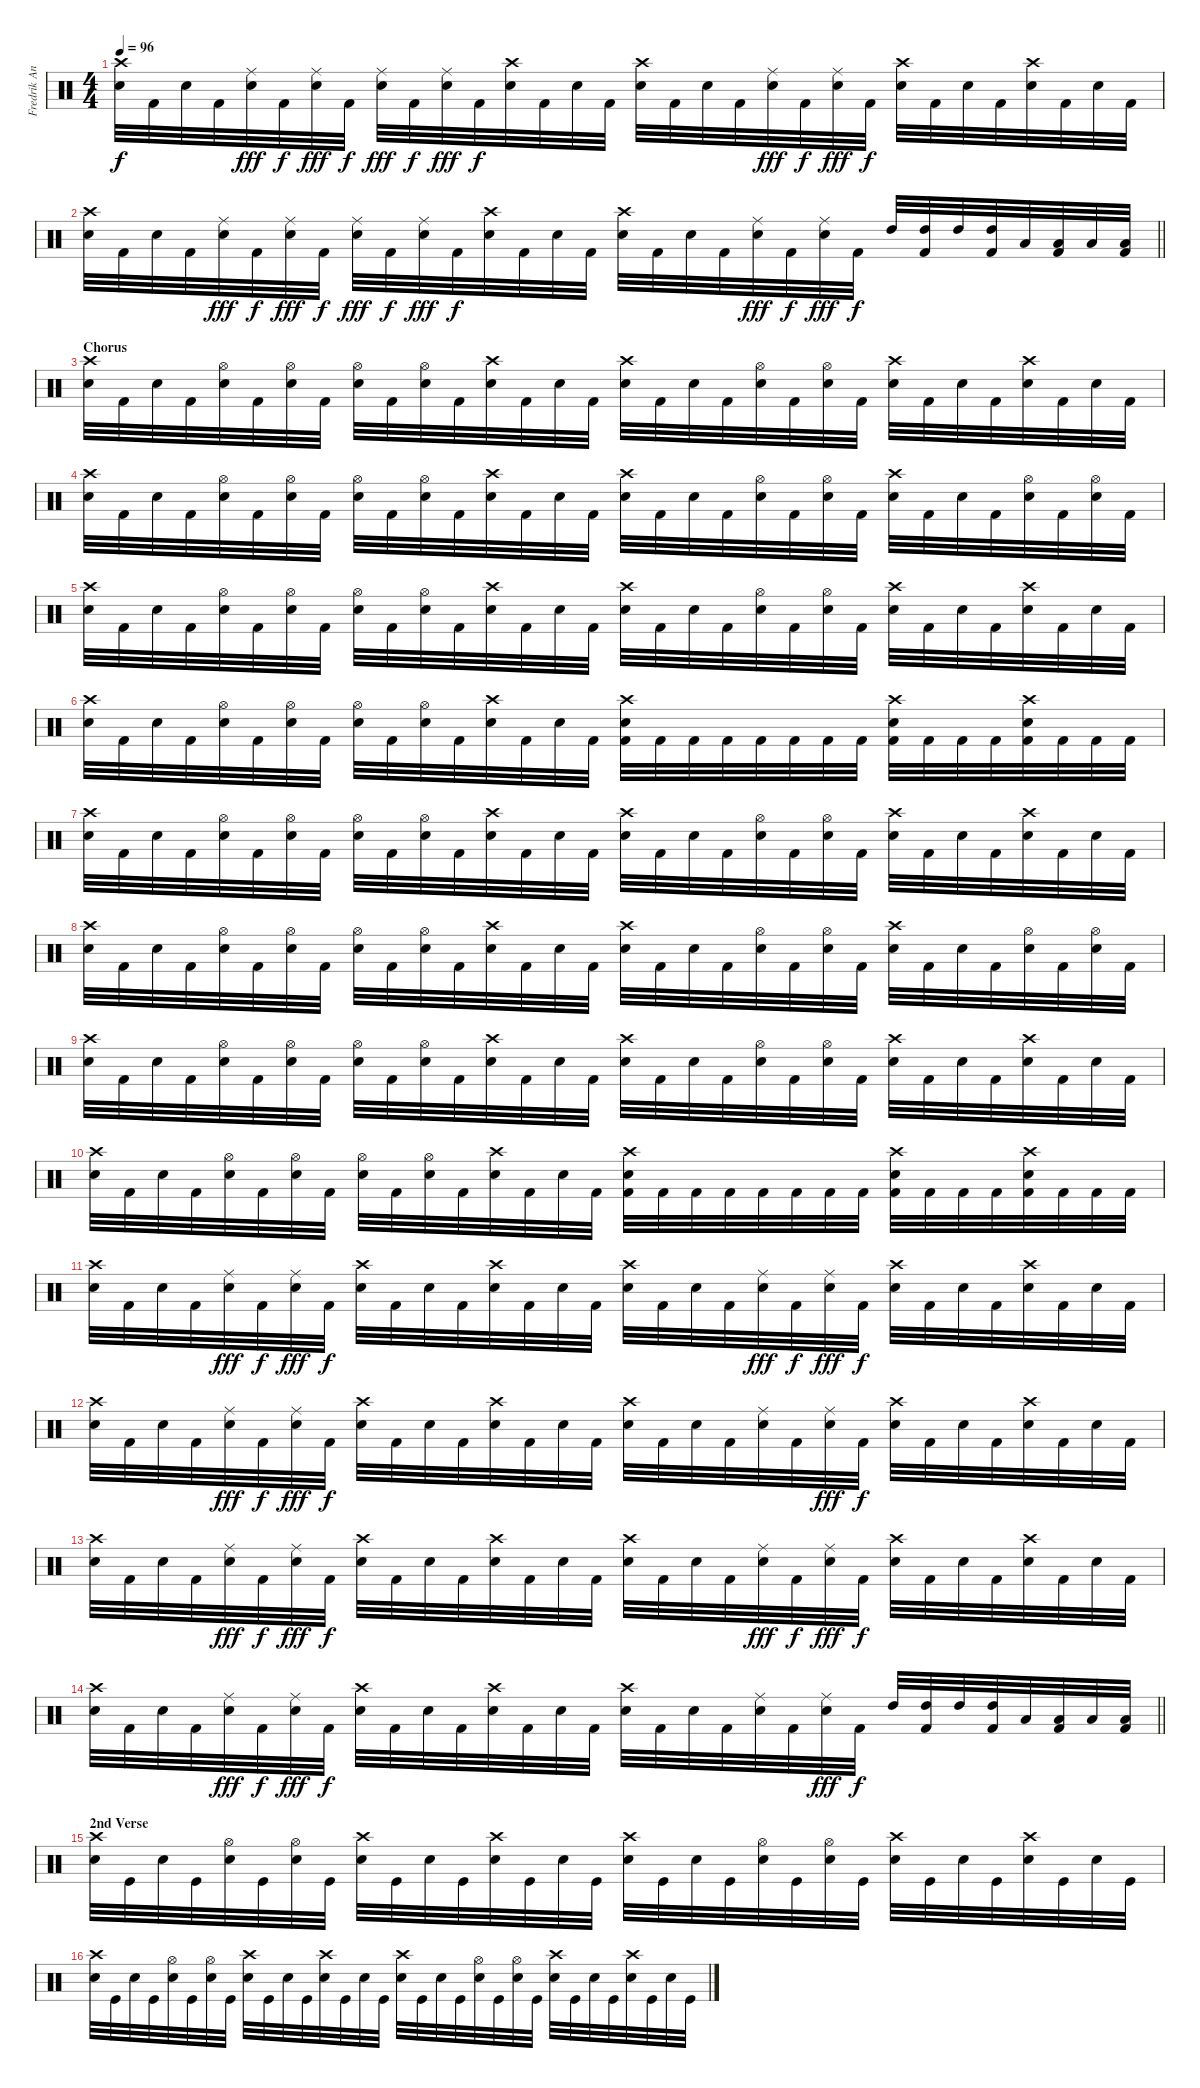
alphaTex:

\track ("Fredrik Andersson" "Fredrik An") {instrument percussion}
\staff {score}
\articulation defaults
\ts (4 4)
\tempo 96
\clef neutral
\ks c
("Crash high (hit)" "Snare (hit) 2").32{dy f} "Kick (hit) 2".32 "Snare (hit) 2".32 "Kick (hit) 2".32 ("Ride (middle)" "Snare (hit) 2").32{dy fff} "Kick (hit) 2".32{dy f} ("Ride (middle)" "Snare (hit) 2").32{dy fff} "Kick (hit) 2".32{dy f} ("Ride (middle)" "Snare (hit) 2").32{dy fff} "Kick (hit) 2".32{dy f} ("Ride (middle)" "Snare (hit) 2").32{dy fff} "Kick (hit) 2".32{dy f} ("Crash high (hit)" "Snare (hit) 2").32 "Kick (hit) 2".32 "Snare (hit) 2".32 "Kick (hit) 2".32 ("Crash high (hit)" "Snare (hit) 2").32 "Kick (hit) 2".32 "Snare (hit) 2".32 "Kick (hit) 2".32 ("Ride (middle)" "Snare (hit) 2").32{dy fff} "Kick (hit) 2".32{dy f} ("Ride (middle)" "Snare (hit) 2").32{dy fff} "Kick (hit) 2".32{dy f} ("Crash high (hit)" "Snare (hit) 2").32 "Kick (hit) 2".32 "Snare (hit) 2".32 "Kick (hit) 2".32 ("Crash high (hit)" "Snare (hit) 2").32 "Kick (hit) 2".32 "Snare (hit) 2".32 "Kick (hit) 2".32 |
\barLineRight lightlight
("Crash high (hit)" "Snare (hit) 2").32 "Kick (hit) 2".32 "Snare (hit) 2".32 "Kick (hit) 2".32 ("Ride (middle)" "Snare (hit) 2").32{dy fff} "Kick (hit) 2".32{dy f} ("Ride (middle)" "Snare (hit) 2").32{dy fff} "Kick (hit) 2".32{dy f} ("Ride (middle)" "Snare (hit) 2").32{dy fff} "Kick (hit) 2".32{dy f} ("Ride (middle)" "Snare (hit) 2").32{dy fff} "Kick (hit) 2".32{dy f} ("Crash high (hit)" "Snare (hit) 2").32 "Kick (hit) 2".32 "Snare (hit) 2".32 "Kick (hit) 2".32 ("Crash high (hit)" "Snare (hit) 2").32 "Kick (hit) 2".32 "Snare (hit) 2".32 "Kick (hit) 2".32 ("Ride (middle)" "Snare (hit) 2").32{dy fff} "Kick (hit) 2".32{dy f} ("Ride (middle)" "Snare (hit) 2").32{dy fff} "Kick (hit) 2".32{dy f} "High Tom (hit)".32 ("High Tom (hit)" "Kick (hit) 2").32 "High Tom (hit)".32 ("High Tom (hit)" "Kick (hit) 2").32 "Low Tom (hit)".32 ("Low Tom (hit)" "Kick (hit) 2").32 "Low Tom (hit)".32 ("Low Tom (hit)" "Kick (hit) 2").32 |
\section ("" "Chorus")
("Crash high (hit)" "Snare (hit) 2").32 "Kick (hit) 2".32 "Snare (hit) 2".32 "Kick (hit) 2".32 ("Hi-Hat (open)" "Snare (hit) 2").32 "Kick (hit) 2".32 ("Hi-Hat (open)" "Snare (hit) 2").32 "Kick (hit) 2".32 ("Hi-Hat (open)" "Snare (hit) 2").32 "Kick (hit) 2".32 ("Hi-Hat (open)" "Snare (hit) 2").32 "Kick (hit) 2".32 ("Crash high (hit)" "Snare (hit) 2").32 "Kick (hit) 2".32 "Snare (hit) 2".32 "Kick (hit) 2".32 ("Crash high (hit)" "Snare (hit) 2").32 "Kick (hit) 2".32 "Snare (hit) 2".32 "Kick (hit) 2".32 ("Hi-Hat (open)" "Snare (hit) 2").32 "Kick (hit) 2".32 ("Hi-Hat (open)" "Snare (hit) 2").32 "Kick (hit) 2".32 ("Crash high (hit)" "Snare (hit) 2").32 "Kick (hit) 2".32 "Snare (hit) 2".32 "Kick (hit) 2".32 ("Crash high (hit)" "Snare (hit) 2").32 "Kick (hit) 2".32 "Snare (hit) 2".32 "Kick (hit) 2".32 |
("Crash high (hit)" "Snare (hit) 2").32 "Kick (hit) 2".32 "Snare (hit) 2".32 "Kick (hit) 2".32 ("Hi-Hat (open)" "Snare (hit) 2").32 "Kick (hit) 2".32 ("Hi-Hat (open)" "Snare (hit) 2").32 "Kick (hit) 2".32 ("Hi-Hat (open)" "Snare (hit) 2").32 "Kick (hit) 2".32 ("Hi-Hat (open)" "Snare (hit) 2").32 "Kick (hit) 2".32 ("Crash high (hit)" "Snare (hit) 2").32 "Kick (hit) 2".32 "Snare (hit) 2".32 "Kick (hit) 2".32 ("Crash high (hit)" "Snare (hit) 2").32 "Kick (hit) 2".32 "Snare (hit) 2".32 "Kick (hit) 2".32 ("Hi-Hat (open)" "Snare (hit) 2").32 "Kick (hit) 2".32 ("Hi-Hat (open)" "Snare (hit) 2").32 "Kick (hit) 2".32 ("Crash high (hit)" "Snare (hit) 2").32 "Kick (hit) 2".32 "Snare (hit) 2".32 "Kick (hit) 2".32 ("Hi-Hat (open)" "Snare (hit) 2").32 "Kick (hit) 2".32 ("Hi-Hat (open)" "Snare (hit) 2").32 "Kick (hit) 2".32 |
("Crash high (hit)" "Snare (hit) 2").32 "Kick (hit) 2".32 "Snare (hit) 2".32 "Kick (hit) 2".32 ("Hi-Hat (open)" "Snare (hit) 2").32 "Kick (hit) 2".32 ("Hi-Hat (open)" "Snare (hit) 2").32 "Kick (hit) 2".32 ("Hi-Hat (open)" "Snare (hit) 2").32 "Kick (hit) 2".32 ("Hi-Hat (open)" "Snare (hit) 2").32 "Kick (hit) 2".32 ("Crash high (hit)" "Snare (hit) 2").32 "Kick (hit) 2".32 "Snare (hit) 2".32 "Kick (hit) 2".32 ("Crash high (hit)" "Snare (hit) 2").32 "Kick (hit) 2".32 "Snare (hit) 2".32 "Kick (hit) 2".32 ("Hi-Hat (open)" "Snare (hit) 2").32 "Kick (hit) 2".32 ("Hi-Hat (open)" "Snare (hit) 2").32 "Kick (hit) 2".32 ("Crash high (hit)" "Snare (hit) 2").32 "Kick (hit) 2".32 "Snare (hit) 2".32 "Kick (hit) 2".32 ("Crash high (hit)" "Snare (hit) 2").32 "Kick (hit) 2".32 "Snare (hit) 2".32 "Kick (hit) 2".32 |
("Crash high (hit)" "Snare (hit) 2").32 "Kick (hit) 2".32 "Snare (hit) 2".32 "Kick (hit) 2".32 ("Hi-Hat (open)" "Snare (hit) 2").32 "Kick (hit) 2".32 ("Hi-Hat (open)" "Snare (hit) 2").32 "Kick (hit) 2".32 ("Hi-Hat (open)" "Snare (hit) 2").32 "Kick (hit) 2".32 ("Hi-Hat (open)" "Snare (hit) 2").32 "Kick (hit) 2".32 ("Crash high (hit)" "Snare (hit) 2").32 "Kick (hit) 2".32 "Snare (hit) 2".32 "Kick (hit) 2".32 ("Crash high (hit)" "Snare (hit) 2" "Kick (hit) 2").32 "Kick (hit) 2".32 "Kick (hit) 2".32 "Kick (hit) 2".32 "Kick (hit) 2".32 "Kick (hit) 2".32 "Kick (hit) 2".32 "Kick (hit) 2".32 ("Crash high (hit)" "Snare (hit) 2" "Kick (hit) 2").32 "Kick (hit) 2".32 "Kick (hit) 2".32 "Kick (hit) 2".32 ("Crash high (hit)" "Snare (hit) 2" "Kick (hit) 2").32 "Kick (hit) 2".32 "Kick (hit) 2".32 "Kick (hit) 2".32 |
("Crash high (hit)" "Snare (hit) 2").32 "Kick (hit) 2".32 "Snare (hit) 2".32 "Kick (hit) 2".32 ("Hi-Hat (open)" "Snare (hit) 2").32 "Kick (hit) 2".32 ("Hi-Hat (open)" "Snare (hit) 2").32 "Kick (hit) 2".32 ("Hi-Hat (open)" "Snare (hit) 2").32 "Kick (hit) 2".32 ("Hi-Hat (open)" "Snare (hit) 2").32 "Kick (hit) 2".32 ("Crash high (hit)" "Snare (hit) 2").32 "Kick (hit) 2".32 "Snare (hit) 2".32 "Kick (hit) 2".32 ("Crash high (hit)" "Snare (hit) 2").32 "Kick (hit) 2".32 "Snare (hit) 2".32 "Kick (hit) 2".32 ("Hi-Hat (open)" "Snare (hit) 2").32 "Kick (hit) 2".32 ("Hi-Hat (open)" "Snare (hit) 2").32 "Kick (hit) 2".32 ("Crash high (hit)" "Snare (hit) 2").32 "Kick (hit) 2".32 "Snare (hit) 2".32 "Kick (hit) 2".32 ("Crash high (hit)" "Snare (hit) 2").32 "Kick (hit) 2".32 "Snare (hit) 2".32 "Kick (hit) 2".32 |
("Crash high (hit)" "Snare (hit) 2").32 "Kick (hit) 2".32 "Snare (hit) 2".32 "Kick (hit) 2".32 ("Hi-Hat (open)" "Snare (hit) 2").32 "Kick (hit) 2".32 ("Hi-Hat (open)" "Snare (hit) 2").32 "Kick (hit) 2".32 ("Hi-Hat (open)" "Snare (hit) 2").32 "Kick (hit) 2".32 ("Hi-Hat (open)" "Snare (hit) 2").32 "Kick (hit) 2".32 ("Crash high (hit)" "Snare (hit) 2").32 "Kick (hit) 2".32 "Snare (hit) 2".32 "Kick (hit) 2".32 ("Crash high (hit)" "Snare (hit) 2").32 "Kick (hit) 2".32 "Snare (hit) 2".32 "Kick (hit) 2".32 ("Hi-Hat (open)" "Snare (hit) 2").32 "Kick (hit) 2".32 ("Hi-Hat (open)" "Snare (hit) 2").32 "Kick (hit) 2".32 ("Crash high (hit)" "Snare (hit) 2").32 "Kick (hit) 2".32 "Snare (hit) 2".32 "Kick (hit) 2".32 ("Hi-Hat (open)" "Snare (hit) 2").32 "Kick (hit) 2".32 ("Hi-Hat (open)" "Snare (hit) 2").32 "Kick (hit) 2".32 |
("Crash high (hit)" "Snare (hit) 2").32 "Kick (hit) 2".32 "Snare (hit) 2".32 "Kick (hit) 2".32 ("Hi-Hat (open)" "Snare (hit) 2").32 "Kick (hit) 2".32 ("Hi-Hat (open)" "Snare (hit) 2").32 "Kick (hit) 2".32 ("Hi-Hat (open)" "Snare (hit) 2").32 "Kick (hit) 2".32 ("Hi-Hat (open)" "Snare (hit) 2").32 "Kick (hit) 2".32 ("Crash high (hit)" "Snare (hit) 2").32 "Kick (hit) 2".32 "Snare (hit) 2".32 "Kick (hit) 2".32 ("Crash high (hit)" "Snare (hit) 2").32 "Kick (hit) 2".32 "Snare (hit) 2".32 "Kick (hit) 2".32 ("Hi-Hat (open)" "Snare (hit) 2").32 "Kick (hit) 2".32 ("Hi-Hat (open)" "Snare (hit) 2").32 "Kick (hit) 2".32 ("Crash high (hit)" "Snare (hit) 2").32 "Kick (hit) 2".32 "Snare (hit) 2".32 "Kick (hit) 2".32 ("Crash high (hit)" "Snare (hit) 2").32 "Kick (hit) 2".32 "Snare (hit) 2".32 "Kick (hit) 2".32 |
("Crash high (hit)" "Snare (hit) 2").32 "Kick (hit) 2".32 "Snare (hit) 2".32 "Kick (hit) 2".32 ("Hi-Hat (open)" "Snare (hit) 2").32 "Kick (hit) 2".32 ("Hi-Hat (open)" "Snare (hit) 2").32 "Kick (hit) 2".32 ("Hi-Hat (open)" "Snare (hit) 2").32 "Kick (hit) 2".32 ("Hi-Hat (open)" "Snare (hit) 2").32 "Kick (hit) 2".32 ("Crash high (hit)" "Snare (hit) 2").32 "Kick (hit) 2".32 "Snare (hit) 2".32 "Kick (hit) 2".32 ("Crash high (hit)" "Snare (hit) 2" "Kick (hit) 2").32 "Kick (hit) 2".32 "Kick (hit) 2".32 "Kick (hit) 2".32 "Kick (hit) 2".32 "Kick (hit) 2".32 "Kick (hit) 2".32 "Kick (hit) 2".32 ("Crash high (hit)" "Snare (hit) 2" "Kick (hit) 2").32 "Kick (hit) 2".32 "Kick (hit) 2".32 "Kick (hit) 2".32 ("Crash high (hit)" "Snare (hit) 2" "Kick (hit) 2").32 "Kick (hit) 2".32 "Kick (hit) 2".32 "Kick (hit) 2".32 |
("Crash high (hit)" "Snare (hit) 2").32 "Kick (hit) 2".32 "Snare (hit) 2".32 "Kick (hit) 2".32 ("Ride (middle)" "Snare (hit) 2").32{dy fff} "Kick (hit) 2".32{dy f} ("Ride (middle)" "Snare (hit) 2").32{dy fff} "Kick (hit) 2".32{dy f} ("Crash high (hit)" "Snare (hit) 2").32 "Kick (hit) 2".32 "Snare (hit) 2".32 "Kick (hit) 2".32 ("Crash high (hit)" "Snare (hit) 2").32 "Kick (hit) 2".32 "Snare (hit) 2".32 "Kick (hit) 2".32 ("Crash high (hit)" "Snare (hit) 2").32 "Kick (hit) 2".32 "Snare (hit) 2".32 "Kick (hit) 2".32 ("Ride (middle)" "Snare (hit) 2").32{dy fff} "Kick (hit) 2".32{dy f} ("Ride (middle)" "Snare (hit) 2").32{dy fff} "Kick (hit) 2".32{dy f} ("Crash high (hit)" "Snare (hit) 2").32 "Kick (hit) 2".32 "Snare (hit) 2".32 "Kick (hit) 2".32 ("Crash high (hit)" "Snare (hit) 2").32 "Kick (hit) 2".32 "Snare (hit) 2".32 "Kick (hit) 2".32 |
("Crash high (hit)" "Snare (hit) 2").32 "Kick (hit) 2".32 "Snare (hit) 2".32 "Kick (hit) 2".32 ("Ride (middle)" "Snare (hit) 2").32{dy fff} "Kick (hit) 2".32{dy f} ("Ride (middle)" "Snare (hit) 2").32{dy fff} "Kick (hit) 2".32{dy f} ("Crash high (hit)" "Snare (hit) 2").32 "Kick (hit) 2".32 "Snare (hit) 2".32 "Kick (hit) 2".32 ("Crash high (hit)" "Snare (hit) 2").32 "Kick (hit) 2".32 "Snare (hit) 2".32 "Kick (hit) 2".32 ("Crash high (hit)" "Snare (hit) 2").32 "Kick (hit) 2".32 "Snare (hit) 2".32 "Kick (hit) 2".32 ("Ride (middle)" "Snare (hit) 2").32 "Kick (hit) 2".32 ("Ride (middle)" "Snare (hit) 2").32{dy fff} "Kick (hit) 2".32{dy f} ("Crash high (hit)" "Snare (hit) 2").32 "Kick (hit) 2".32 "Snare (hit) 2".32 "Kick (hit) 2".32 ("Crash high (hit)" "Snare (hit) 2").32 "Kick (hit) 2".32 "Snare (hit) 2".32 "Kick (hit) 2".32 |
("Crash high (hit)" "Snare (hit) 2").32 "Kick (hit) 2".32 "Snare (hit) 2".32 "Kick (hit) 2".32 ("Ride (middle)" "Snare (hit) 2").32{dy fff} "Kick (hit) 2".32{dy f} ("Ride (middle)" "Snare (hit) 2").32{dy fff} "Kick (hit) 2".32{dy f} ("Crash high (hit)" "Snare (hit) 2").32 "Kick (hit) 2".32 "Snare (hit) 2".32 "Kick (hit) 2".32 ("Crash high (hit)" "Snare (hit) 2").32 "Kick (hit) 2".32 "Snare (hit) 2".32 "Kick (hit) 2".32 ("Crash high (hit)" "Snare (hit) 2").32 "Kick (hit) 2".32 "Snare (hit) 2".32 "Kick (hit) 2".32 ("Ride (middle)" "Snare (hit) 2").32{dy fff} "Kick (hit) 2".32{dy f} ("Ride (middle)" "Snare (hit) 2").32{dy fff} "Kick (hit) 2".32{dy f} ("Crash high (hit)" "Snare (hit) 2").32 "Kick (hit) 2".32 "Snare (hit) 2".32 "Kick (hit) 2".32 ("Crash high (hit)" "Snare (hit) 2").32 "Kick (hit) 2".32 "Snare (hit) 2".32 "Kick (hit) 2".32 |
\barLineRight lightlight
("Crash high (hit)" "Snare (hit) 2").32 "Kick (hit) 2".32 "Snare (hit) 2".32 "Kick (hit) 2".32 ("Ride (middle)" "Snare (hit) 2").32{dy fff} "Kick (hit) 2".32{dy f} ("Ride (middle)" "Snare (hit) 2").32{dy fff} "Kick (hit) 2".32{dy f} ("Crash high (hit)" "Snare (hit) 2").32 "Kick (hit) 2".32 "Snare (hit) 2".32 "Kick (hit) 2".32 ("Crash high (hit)" "Snare (hit) 2").32 "Kick (hit) 2".32 "Snare (hit) 2".32 "Kick (hit) 2".32 ("Crash high (hit)" "Snare (hit) 2").32 "Kick (hit) 2".32 "Snare (hit) 2".32 "Kick (hit) 2".32 ("Ride (middle)" "Snare (hit) 2").32 "Kick (hit) 2".32 ("Ride (middle)" "Snare (hit) 2").32{dy fff} "Kick (hit) 2".32{dy f} "High Tom (hit)".32 ("High Tom (hit)" "Kick (hit) 2").32 "High Tom (hit)".32 ("High Tom (hit)" "Kick (hit) 2").32 "Low Tom (hit)".32 ("Low Tom (hit)" "Kick (hit) 2").32 "Low Tom (hit)".32 ("Low Tom (hit)" "Kick (hit) 2").32 |
\section ("" "2nd Verse")
("Crash high (hit)" "Snare (hit) 2").32 "Kick (hit)".32 "Snare (hit) 2".32 "Kick (hit)".32 ("Hi-Hat (open)" "Snare (hit) 2").32 "Kick (hit)".32 ("Hi-Hat (open)" "Snare (hit) 2").32 "Kick (hit)".32 ("Crash high (hit)" "Snare (hit) 2").32 "Kick (hit)".32 "Snare (hit) 2".32 "Kick (hit)".32 ("Crash high (hit)" "Snare (hit) 2").32 "Kick (hit)".32 "Snare (hit) 2".32 "Kick (hit)".32 ("Crash high (hit)" "Snare (hit) 2").32 "Kick (hit)".32 "Snare (hit) 2".32 "Kick (hit)".32 ("Hi-Hat (open)" "Snare (hit) 2").32 "Kick (hit)".32 ("Hi-Hat (open)" "Snare (hit) 2").32 "Kick (hit)".32 ("Crash high (hit)" "Snare (hit) 2").32 "Kick (hit)".32 "Snare (hit) 2".32 "Kick (hit)".32 ("Crash high (hit)" "Snare (hit) 2").32 "Kick (hit)".32 "Snare (hit) 2".32 "Kick (hit)".32 |
("Crash high (hit)" "Snare (hit) 2").32 "Kick (hit)".32 "Snare (hit) 2".32 "Kick (hit)".32 ("Hi-Hat (open)" "Snare (hit) 2").32 "Kick (hit)".32 ("Hi-Hat (open)" "Snare (hit) 2").32 "Kick (hit)".32 ("Crash high (hit)" "Snare (hit) 2").32 "Kick (hit)".32 "Snare (hit) 2".32 "Kick (hit)".32 ("Crash high (hit)" "Snare (hit) 2").32 "Kick (hit)".32 "Snare (hit) 2".32 "Kick (hit)".32 ("Crash high (hit)" "Snare (hit) 2").32 "Kick (hit)".32 "Snare (hit) 2".32 "Kick (hit)".32 ("Hi-Hat (open)" "Snare (hit) 2").32 "Kick (hit)".32 ("Hi-Hat (open)" "Snare (hit) 2").32 "Kick (hit)".32 ("Crash high (hit)" "Snare (hit) 2").32 "Kick (hit)".32 "Snare (hit) 2".32 "Kick (hit)".32 ("Crash high (hit)" "Snare (hit) 2").32 "Kick (hit)".32 "Snare (hit) 2".32 "Kick (hit)".32
